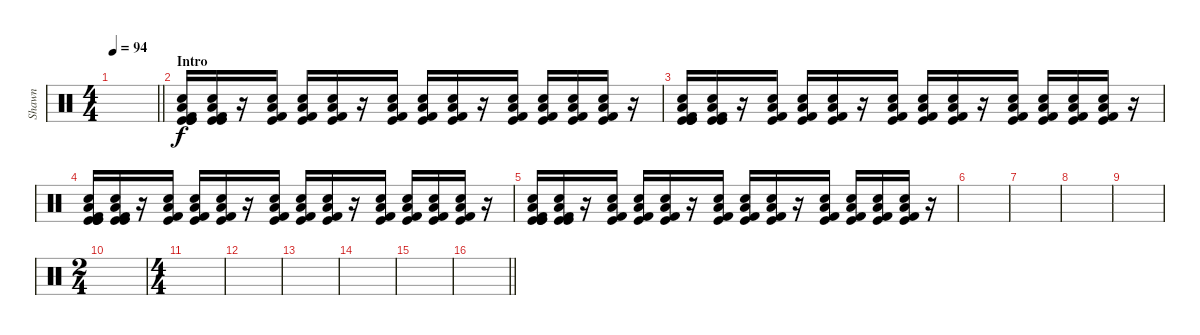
\track ("Shawn" "Shawn") {instrument percussion}
\staff {score}
\articulation defaults
\ts (4 4)
\tempo 94
\clef neutral
\barLineRight lightlight
\ks c
|
\section ("" "Intro")
("Kick (hit)" "Kick (hit)" "Kick (hit)" "Low Floor Tom (hit)" "Electric Snare (hit)" "Kick (hit) 2").16 ("Kick (hit)" "Kick (hit)" "Low Floor Tom (hit)" "Electric Snare (hit)" "Kick (hit) 2").16 r.16 ("Kick (hit)" "Low Floor Tom (hit)" "Electric Snare (hit)" "Kick (hit) 2").16 ("Kick (hit)" "Low Floor Tom (hit)" "Electric Snare (hit)" "Kick (hit) 2").16 ("Kick (hit)" "Low Floor Tom (hit)" "Electric Snare (hit)" "Kick (hit) 2").16 r.16 ("Kick (hit)" "Low Floor Tom (hit)" "Electric Snare (hit)" "Kick (hit) 2").16 ("Kick (hit)" "Low Floor Tom (hit)" "Electric Snare (hit)" "Kick (hit) 2").16 ("Kick (hit)" "Low Floor Tom (hit)" "Electric Snare (hit)" "Kick (hit) 2").16 r.16 ("Kick (hit)" "Low Floor Tom (hit)" "Electric Snare (hit)" "Kick (hit) 2").16 ("Kick (hit)" "Low Floor Tom (hit)" "Electric Snare (hit)" "Kick (hit) 2").16 ("Kick (hit)" "Low Floor Tom (hit)" "Electric Snare (hit)" "Kick (hit) 2").16 ("Kick (hit)" "Low Floor Tom (hit)" "Electric Snare (hit)" "Kick (hit) 2").16 r.16 |
("Kick (hit)" "Kick (hit)" "Kick (hit)" "Low Floor Tom (hit)" "Electric Snare (hit)" "Kick (hit) 2").16 ("Kick (hit)" "Kick (hit)" "Low Floor Tom (hit)" "Electric Snare (hit)" "Kick (hit) 2").16 r.16 ("Kick (hit)" "Low Floor Tom (hit)" "Electric Snare (hit)" "Kick (hit) 2").16 ("Kick (hit)" "Low Floor Tom (hit)" "Electric Snare (hit)" "Kick (hit) 2").16 ("Kick (hit)" "Low Floor Tom (hit)" "Electric Snare (hit)" "Kick (hit) 2").16 r.16 ("Kick (hit)" "Low Floor Tom (hit)" "Electric Snare (hit)" "Kick (hit) 2").16 ("Kick (hit)" "Low Floor Tom (hit)" "Electric Snare (hit)" "Kick (hit) 2").16 ("Kick (hit)" "Low Floor Tom (hit)" "Electric Snare (hit)" "Kick (hit) 2").16 r.16 ("Kick (hit)" "Low Floor Tom (hit)" "Electric Snare (hit)" "Kick (hit) 2").16 ("Kick (hit)" "Low Floor Tom (hit)" "Electric Snare (hit)" "Kick (hit) 2").16 ("Kick (hit)" "Low Floor Tom (hit)" "Electric Snare (hit)" "Kick (hit) 2").16 ("Kick (hit)" "Low Floor Tom (hit)" "Electric Snare (hit)" "Kick (hit) 2").16 r.16 |
("Kick (hit)" "Kick (hit)" "Kick (hit)" "Low Floor Tom (hit)" "Electric Snare (hit)" "Kick (hit) 2").16 ("Kick (hit)" "Kick (hit)" "Low Floor Tom (hit)" "Electric Snare (hit)" "Kick (hit) 2").16 r.16 ("Kick (hit)" "Low Floor Tom (hit)" "Electric Snare (hit)" "Kick (hit) 2").16 ("Kick (hit)" "Low Floor Tom (hit)" "Electric Snare (hit)" "Kick (hit) 2").16 ("Kick (hit)" "Low Floor Tom (hit)" "Electric Snare (hit)" "Kick (hit) 2").16 r.16 ("Kick (hit)" "Low Floor Tom (hit)" "Electric Snare (hit)" "Kick (hit) 2").16 ("Kick (hit)" "Low Floor Tom (hit)" "Electric Snare (hit)" "Kick (hit) 2").16 ("Kick (hit)" "Low Floor Tom (hit)" "Electric Snare (hit)" "Kick (hit) 2").16 r.16 ("Kick (hit)" "Low Floor Tom (hit)" "Electric Snare (hit)" "Kick (hit) 2").16 ("Kick (hit)" "Low Floor Tom (hit)" "Electric Snare (hit)" "Kick (hit) 2").16 ("Kick (hit)" "Low Floor Tom (hit)" "Electric Snare (hit)" "Kick (hit) 2").16 ("Kick (hit)" "Low Floor Tom (hit)" "Electric Snare (hit)" "Kick (hit) 2").16 r.16 |
("Kick (hit)" "Kick (hit)" "Kick (hit)" "Low Floor Tom (hit)" "Electric Snare (hit)" "Kick (hit) 2").16 ("Kick (hit)" "Kick (hit)" "Low Floor Tom (hit)" "Electric Snare (hit)" "Kick (hit) 2").16 r.16 ("Kick (hit)" "Low Floor Tom (hit)" "Electric Snare (hit)" "Kick (hit) 2").16 ("Kick (hit)" "Low Floor Tom (hit)" "Electric Snare (hit)" "Kick (hit) 2").16 ("Kick (hit)" "Low Floor Tom (hit)" "Electric Snare (hit)" "Kick (hit) 2").16 r.16 ("Kick (hit)" "Low Floor Tom (hit)" "Electric Snare (hit)" "Kick (hit) 2").16 ("Kick (hit)" "Low Floor Tom (hit)" "Electric Snare (hit)" "Kick (hit) 2").16 ("Kick (hit)" "Low Floor Tom (hit)" "Electric Snare (hit)" "Kick (hit) 2").16 r.16 ("Kick (hit)" "Low Floor Tom (hit)" "Electric Snare (hit)" "Kick (hit) 2").16 ("Kick (hit)" "Low Floor Tom (hit)" "Electric Snare (hit)" "Kick (hit) 2").16 ("Kick (hit)" "Low Floor Tom (hit)" "Electric Snare (hit)" "Kick (hit) 2").16 ("Kick (hit)" "Low Floor Tom (hit)" "Electric Snare (hit)" "Kick (hit) 2").16 r.16 |
|
|
|
|
\ts (2 4)
|
\ts (4 4)
|
|
|
|
|
\barLineRight lightlight
